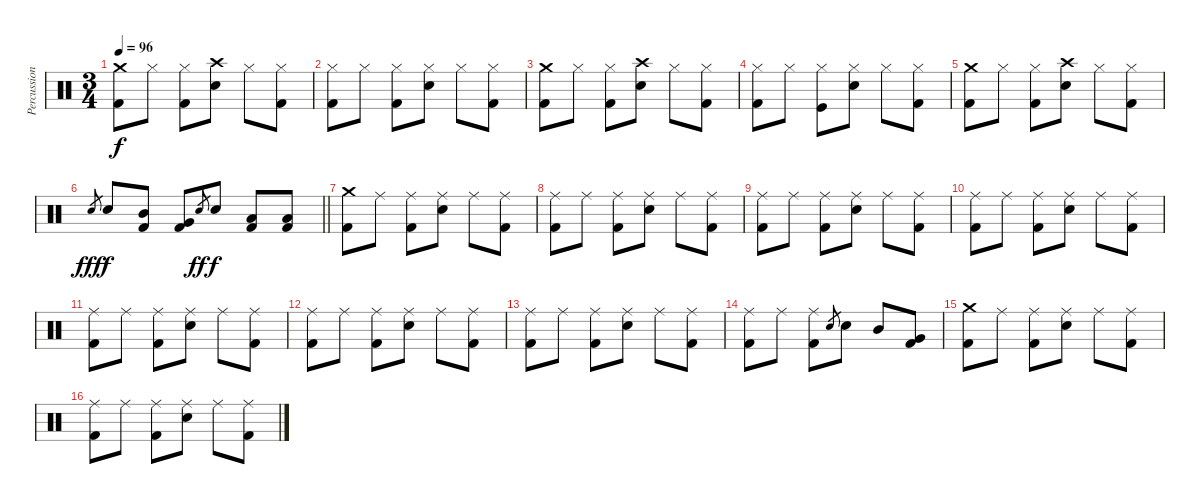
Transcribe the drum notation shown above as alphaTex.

\track ("Percussion" "Percussion") {instrument percussion}
\staff {score}
\articulation defaults
\ts (3 4)
\tempo 96
\clef neutral
\ks c
("Crash medium (hit)" "Kick (hit) 2").8{dy f} "Hi-Hat (closed)".8 ("Hi-Hat (closed)" "Kick (hit) 2").8 ("Crash high (hit)" "Snare (hit) 2").8 "Hi-Hat (closed)".8 ("Hi-Hat (closed)" "Kick (hit) 2").8 |
("Hi-Hat (closed)" "Kick (hit) 2").8 "Hi-Hat (closed)".8 ("Hi-Hat (closed)" "Kick (hit) 2").8 ("Hi-Hat (closed)" "Snare (hit) 2").8 "Hi-Hat (closed)".8 ("Hi-Hat (closed)" "Kick (hit) 2").8 |
("Crash medium (hit)" "Kick (hit) 2").8 "Hi-Hat (closed)".8 ("Hi-Hat (closed)" "Kick (hit) 2").8 ("Crash high (hit)" "Snare (hit) 2").8 "Hi-Hat (closed)".8 ("Hi-Hat (closed)" "Kick (hit) 2").8 |
("Hi-Hat (closed)" "Kick (hit) 2").8 "Hi-Hat (closed)".8 ("Hi-Hat (closed)" "Kick (hit)").8 ("Hi-Hat (closed)" "Snare (hit) 2").8 "Hi-Hat (closed)".8 ("Hi-Hat (closed)" "Kick (hit) 2").8 |
("Crash medium (hit)" "Kick (hit) 2").8 "Hi-Hat (closed)".8 ("Hi-Hat (closed)" "Kick (hit) 2").8 ("Crash high (hit)" "Snare (hit) 2").8 "Hi-Hat (closed)".8 ("Hi-Hat (closed)" "Kick (hit) 2").8 |
\barLineRight lightlight "Snare (hit) 2".8{gr dy fff} "Snare (hit) 2".8{dy f}
("Mid Tom (hit)" "Kick (hit) 2").8 ("Very Low Tom (hit)" "Kick (hit) 2").8 "Snare (hit) 2".8{gr dy ff} "Snare (hit) 2".8{dy f} ("Low Tom (hit)" "Kick (hit) 2").8 ("Low Floor Tom (hit)" "Kick (hit) 2").8 |
("Crash medium (hit)" "Kick (hit) 2").8 "Ride (middle)".8 ("Ride (middle)" "Kick (hit) 2").8 ("Ride (middle)" "Snare (hit) 2").8 "Ride (middle)".8 ("Ride (middle)" "Kick (hit) 2").8 |
("Ride (middle)" "Kick (hit) 2").8 "Ride (middle)".8 ("Ride (middle)" "Kick (hit) 2").8 ("Ride (middle)" "Snare (hit) 2").8 "Ride (middle)".8 ("Ride (middle)" "Kick (hit) 2").8 |
("Ride (middle)" "Kick (hit) 2").8 "Ride (middle)".8 ("Ride (middle)" "Kick (hit) 2").8 ("Ride (middle)" "Snare (hit) 2").8 "Ride (middle)".8 ("Ride (middle)" "Kick (hit) 2").8 |
("Ride (middle)" "Kick (hit) 2").8 "Ride (middle)".8 ("Ride (middle)" "Kick (hit) 2").8 ("Ride (middle)" "Snare (hit) 2").8 "Ride (middle)".8 ("Ride (middle)" "Kick (hit) 2").8 |
("Ride (middle)" "Kick (hit) 2").8 "Ride (middle)".8 ("Ride (middle)" "Kick (hit) 2").8 ("Ride (middle)" "Snare (hit) 2").8 "Ride (middle)".8 ("Ride (middle)" "Kick (hit) 2").8 |
("Ride (middle)" "Kick (hit) 2").8 "Ride (middle)".8 ("Ride (middle)" "Kick (hit) 2").8 ("Ride (middle)" "Snare (hit) 2").8 "Ride (middle)".8 ("Ride (middle)" "Kick (hit) 2").8 |
("Ride (middle)" "Kick (hit) 2").8 "Ride (middle)".8 ("Ride (middle)" "Kick (hit) 2").8 ("Ride (middle)" "Snare (hit) 2").8 "Ride (middle)".8 ("Ride (middle)" "Kick (hit) 2").8 |
("Ride (middle)" "Kick (hit) 2").8 "Ride (middle)".8 ("Ride (middle)" "Kick (hit) 2").8 "Snare (hit) 2".8{gr} "Snare (hit) 2".8 "Mid Tom (hit)".8 ("Very Low Tom (hit)" "Kick (hit) 2").8 |
("Crash medium (hit)" "Kick (hit) 2").8 "Ride (middle)".8 ("Ride (middle)" "Kick (hit) 2").8 ("Ride (middle)" "Snare (hit) 2").8 "Ride (middle)".8 ("Ride (middle)" "Kick (hit) 2").8 |
("Ride (middle)" "Kick (hit) 2").8 "Ride (middle)".8 ("Ride (middle)" "Kick (hit) 2").8 ("Ride (middle)" "Snare (hit) 2").8 "Ride (middle)".8 ("Ride (middle)" "Kick (hit) 2").8
